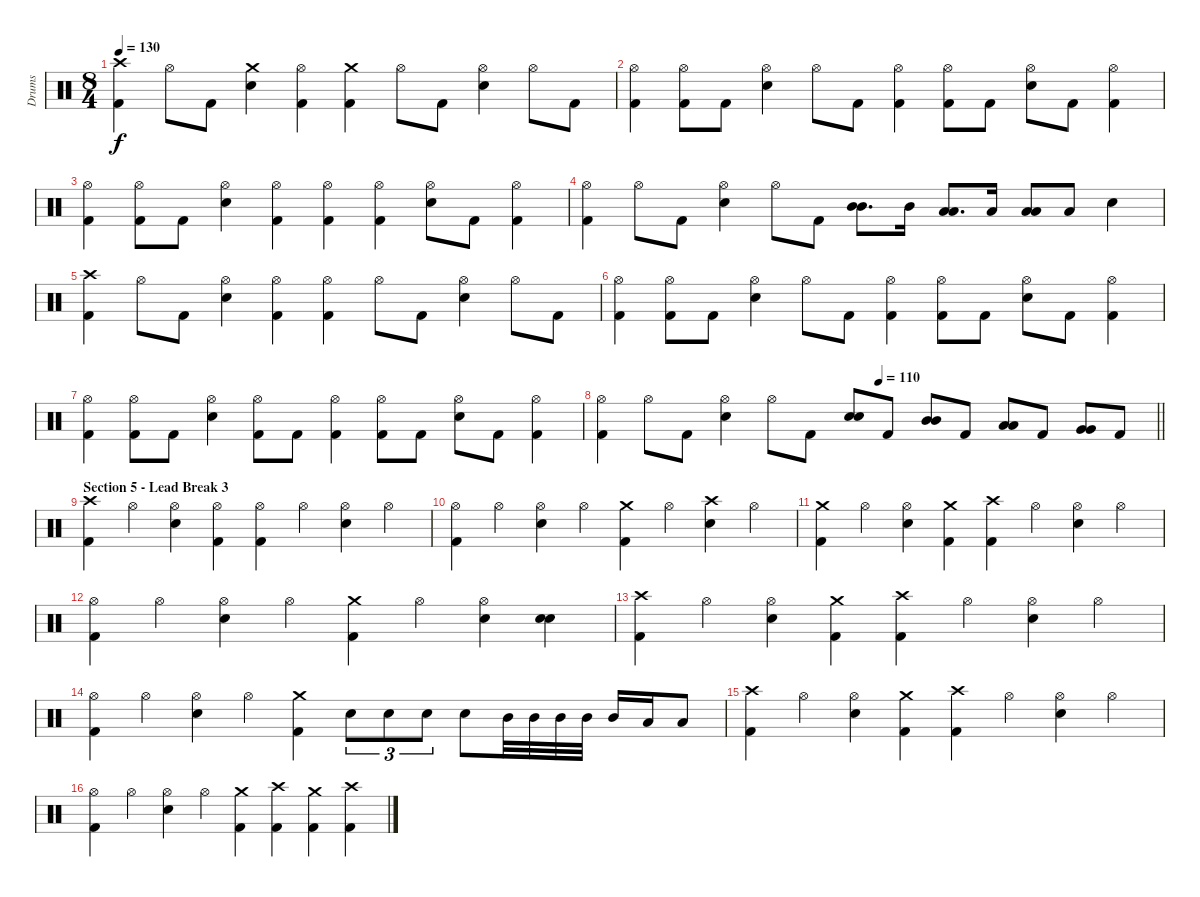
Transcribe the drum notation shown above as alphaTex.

\track ("Drums" "Drums") {instrument percussion}
\staff {score}
\articulation defaults
\ts (8 4)
\tempo 130
\clef neutral
\ks c
("Crash high (hit)" "Kick (hit) 2").4{dy f} "Hi-Hat (open)".8 "Kick (hit) 2".8 ("Crash medium (hit)" "Electric Snare (hit)").4 ("Hi-Hat (open)" "Kick (hit) 2").4 ("Crash medium (hit)" "Kick (hit) 2").4 "Hi-Hat (open)".8 "Kick (hit) 2".8 ("Hi-Hat (open)" "Electric Snare (hit)").4 "Hi-Hat (open)".8 "Kick (hit) 2".8 |
("Hi-Hat (open)" "Kick (hit) 2").4 ("Hi-Hat (open)" "Kick (hit) 2").8 "Kick (hit) 2".8 ("Hi-Hat (open)" "Electric Snare (hit)").4 "Hi-Hat (open)".8 "Kick (hit) 2".8 ("Hi-Hat (open)" "Kick (hit) 2").4 ("Hi-Hat (open)" "Kick (hit) 2").8 "Kick (hit) 2".8 ("Hi-Hat (open)" "Electric Snare (hit)").8 "Kick (hit) 2".8 ("Hi-Hat (open)" "Kick (hit) 2").4 |
("Hi-Hat (open)" "Kick (hit) 2").4 ("Hi-Hat (open)" "Kick (hit) 2").8 "Kick (hit) 2".8 ("Hi-Hat (open)" "Electric Snare (hit)").4 ("Hi-Hat (open)" "Kick (hit) 2").4 ("Hi-Hat (open)" "Kick (hit) 2").4 ("Hi-Hat (open)" "Kick (hit) 2").4 ("Hi-Hat (open)" "Electric Snare (hit)").8 "Kick (hit) 2".8 ("Hi-Hat (open)" "Kick (hit) 2").4 |
("Hi-Hat (open)" "Kick (hit) 2").4 "Hi-Hat (open)".8 "Kick (hit) 2".8 ("Hi-Hat (open)" "Electric Snare (hit)").4 "Hi-Hat (open)".8 "Kick (hit) 2".8 ("Mid Tom (hit)" "Mid Tom (hit)").8{d bu 60} "Mid Tom (hit)".16 ("Low Tom (hit)" "Low Tom (hit)").8{d bu 60} "Low Tom (hit)".16 ("Low Tom (hit)" "Low Tom (hit)").8{bu 60} "Low Tom (hit)".8 "Electric Snare (hit)".4 |
("Crash high (hit)" "Kick (hit) 2").4 "Hi-Hat (open)".8 "Kick (hit) 2".8 ("Hi-Hat (open)" "Electric Snare (hit)").4 ("Hi-Hat (open)" "Kick (hit) 2").4 ("Hi-Hat (open)" "Kick (hit) 2").4 "Hi-Hat (open)".8 "Kick (hit) 2".8 ("Hi-Hat (open)" "Electric Snare (hit)").4 "Hi-Hat (open)".8 "Kick (hit) 2".8 |
("Hi-Hat (open)" "Kick (hit) 2").4 ("Hi-Hat (open)" "Kick (hit) 2").8 "Kick (hit) 2".8 ("Hi-Hat (open)" "Electric Snare (hit)").4 "Hi-Hat (open)".8 "Kick (hit) 2".8 ("Hi-Hat (open)" "Kick (hit) 2").4 ("Hi-Hat (open)" "Kick (hit) 2").8 "Kick (hit) 2".8 ("Hi-Hat (open)" "Electric Snare (hit)").8 "Kick (hit) 2".8 ("Hi-Hat (open)" "Kick (hit) 2").4 |
("Hi-Hat (open)" "Kick (hit) 2").4 ("Hi-Hat (open)" "Kick (hit) 2").8 "Kick (hit) 2".8 ("Hi-Hat (open)" "Electric Snare (hit)").4 ("Hi-Hat (open)" "Kick (hit) 2").8 "Kick (hit) 2".8 ("Hi-Hat (open)" "Kick (hit) 2").4 ("Hi-Hat (open)" "Kick (hit) 2").8 "Kick (hit) 2".8 ("Hi-Hat (open)" "Electric Snare (hit)").8 "Kick (hit) 2".8 ("Hi-Hat (open)" "Kick (hit) 2").4 |
\tempo (110 0.5)
\barLineRight lightlight
("Hi-Hat (open)" "Kick (hit) 2").4 "Hi-Hat (open)".8 "Kick (hit) 2".8 ("Hi-Hat (open)" "Electric Snare (hit)").4 "Hi-Hat (open)".8 "Kick (hit) 2".8 ("Electric Snare (hit)" "Electric Snare (hit)").8{bu 60} "Kick (hit) 2".8 ("Mid Tom (hit)" "Mid Tom (hit)").8{bu 60} "Kick (hit) 2".8 ("Low Tom (hit)" "Low Tom (hit)").8{bu 60} "Kick (hit) 2".8 ("Very Low Tom (hit)" "Very Low Tom (hit)").8{bu 60} "Kick (hit) 2".8 |
\section ("" "Section 5 - Lead Break 3")
("Crash high (hit)" "Kick (hit) 2").4 "Hi-Hat (open)".4 ("Hi-Hat (open)" "Electric Snare (hit)").4 ("Hi-Hat (open)" "Kick (hit) 2").4 ("Hi-Hat (open)" "Kick (hit) 2").4 "Hi-Hat (open)".4 ("Hi-Hat (open)" "Electric Snare (hit)").4 "Hi-Hat (open)".4 |
("Hi-Hat (open)" "Kick (hit) 2").4 "Hi-Hat (open)".4 ("Hi-Hat (open)" "Electric Snare (hit)").4 "Hi-Hat (open)".4 ("Crash medium (hit)" "Kick (hit) 2").4 "Hi-Hat (open)".4 ("Crash high (hit)" "Electric Snare (hit)").4 "Hi-Hat (open)".4 |
("Crash medium (hit)" "Kick (hit) 2").4 "Hi-Hat (open)".4 ("Hi-Hat (open)" "Electric Snare (hit)").4 ("Crash medium (hit)" "Kick (hit) 2").4 ("Crash high (hit)" "Kick (hit) 2").4 "Hi-Hat (open)".4 ("Hi-Hat (open)" "Electric Snare (hit)").4 "Hi-Hat (open)".4 |
("Hi-Hat (open)" "Kick (hit) 2").4 "Hi-Hat (open)".4 ("Hi-Hat (open)" "Electric Snare (hit)").4 "Hi-Hat (open)".4 ("Crash medium (hit)" "Kick (hit) 2").4 "Hi-Hat (open)".4 ("Hi-Hat (open)" "Electric Snare (hit)").4 ("Electric Snare (hit)" "Electric Snare (hit)").4{bu 60} |
("Crash high (hit)" "Kick (hit) 2").4 "Hi-Hat (open)".4 ("Hi-Hat (open)" "Electric Snare (hit)").4 ("Crash medium (hit)" "Kick (hit) 2").4 ("Crash high (hit)" "Kick (hit) 2").4 "Hi-Hat (open)".4 ("Hi-Hat (open)" "Electric Snare (hit)").4 "Hi-Hat (open)".4 |
("Hi-Hat (open)" "Kick (hit) 2").4 "Hi-Hat (open)".4 ("Hi-Hat (open)" "Electric Snare (hit)").4 "Hi-Hat (open)".4 ("Crash medium (hit)" "Kick (hit) 2").4 "Electric Snare (hit)".8{tu (3 2)} "Electric Snare (hit)".8{tu (3 2)} "Electric Snare (hit)".8{tu (3 2)} "Electric Snare (hit)".8 "Mid Tom (hit)".32 "Mid Tom (hit)".32 "Mid Tom (hit)".32 "Mid Tom (hit)".32 "Mid Tom (hit)".16 "Low Tom (hit)".16 "Low Tom (hit)".8 |
("Crash high (hit)" "Kick (hit) 2").4 "Hi-Hat (open)".4 ("Hi-Hat (open)" "Electric Snare (hit)").4 ("Crash medium (hit)" "Kick (hit) 2").4 ("Crash high (hit)" "Kick (hit) 2").4 "Hi-Hat (open)".4 ("Hi-Hat (open)" "Electric Snare (hit)").4 "Hi-Hat (open)".4 |
("Hi-Hat (open)" "Kick (hit) 2").4 "Hi-Hat (open)".4 ("Hi-Hat (open)" "Electric Snare (hit)").4 "Hi-Hat (open)".4 ("Crash medium (hit)" "Kick (hit) 2").4 ("Crash high (hit)" "Kick (hit) 2").4 ("Crash medium (hit)" "Kick (hit) 2").4 ("Crash high (hit)" "Kick (hit) 2").4
